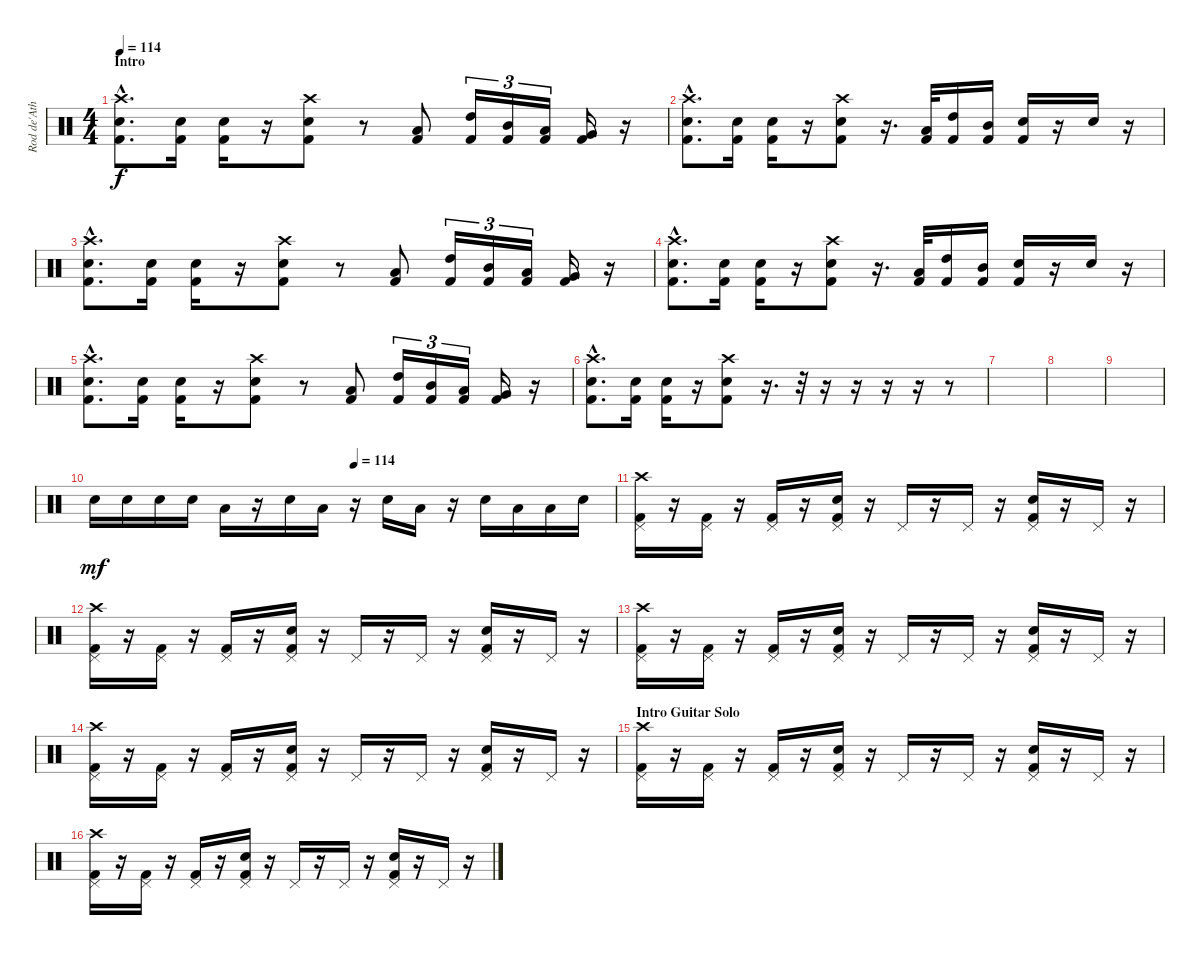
\track ("Rod de'Ath" "Rod de'Ath") {instrument percussion}
\staff {score}
\articulation defaults
\ts (4 4)
\section ("" "Intro")
\tempo 114
\tempo 118
\tempo 114
\clef neutral
\ks c
("Crash high (hit)"{hac} "Snare (hit) 2"{hac} "Kick (hit) 2"{hac}).8{d dy f} ("Snare (hit) 2" "Kick (hit) 2").16 ("Snare (hit) 2" "Kick (hit) 2").16 r.16 ("Crash high (hit)" "Snare (hit) 2" "Kick (hit) 2").8 r.8 ("Low Tom (hit)" "Kick (hit) 2").8 ("High Tom (hit)" "Kick (hit) 2").16{tu (3 2)} ("Mid Tom (hit)" "Kick (hit) 2").16{tu (3 2)} ("Low Tom (hit)" "Kick (hit) 2").16{tu (3 2)} ("Very Low Tom (hit)" "Kick (hit) 2").16 r.16 |
("Crash high (hit)"{hac} "Snare (hit) 2"{hac} "Kick (hit) 2"{hac}).8{d} ("Snare (hit) 2" "Kick (hit) 2").16 ("Snare (hit) 2" "Kick (hit) 2").16 r.16 ("Crash high (hit)" "Snare (hit) 2" "Kick (hit) 2").8 r.16{d} ("Low Tom (hit)" "Kick (hit) 2").32 ("High Tom (hit)" "Kick (hit) 2").16 ("Mid Tom (hit)" "Kick (hit) 2").16 ("Electric Snare (hit)" "Kick (hit) 2").16 r.16 "Electric Snare (hit)".16 r.16 |
("Crash high (hit)"{hac} "Snare (hit) 2"{hac} "Kick (hit) 2"{hac}).8{d} ("Snare (hit) 2" "Kick (hit) 2").16 ("Snare (hit) 2" "Kick (hit) 2").16 r.16 ("Crash high (hit)" "Snare (hit) 2" "Kick (hit) 2").8 r.8 ("Low Tom (hit)" "Kick (hit) 2").8 ("High Tom (hit)" "Kick (hit) 2").16{tu (3 2)} ("Mid Tom (hit)" "Kick (hit) 2").16{tu (3 2)} ("Low Tom (hit)" "Kick (hit) 2").16{tu (3 2)} ("Very Low Tom (hit)" "Kick (hit) 2").16 r.16 |
("Crash high (hit)"{hac} "Snare (hit) 2"{hac} "Kick (hit) 2"{hac}).8{d} ("Snare (hit) 2" "Kick (hit) 2").16 ("Snare (hit) 2" "Kick (hit) 2").16 r.16 ("Crash high (hit)" "Snare (hit) 2" "Kick (hit) 2").8 r.16{d} ("Low Tom (hit)" "Kick (hit) 2").32 ("High Tom (hit)" "Kick (hit) 2").16 ("Mid Tom (hit)" "Kick (hit) 2").16 ("Electric Snare (hit)" "Kick (hit) 2").16 r.16 "Electric Snare (hit)".16 r.16 |
("Crash high (hit)"{hac} "Snare (hit) 2"{hac} "Kick (hit) 2"{hac}).8{d} ("Snare (hit) 2" "Kick (hit) 2").16 ("Snare (hit) 2" "Kick (hit) 2").16 r.16 ("Crash high (hit)" "Snare (hit) 2" "Kick (hit) 2").8 r.8 ("Low Tom (hit)" "Kick (hit) 2").8 ("High Tom (hit)" "Kick (hit) 2").16{tu (3 2)} ("Mid Tom (hit)" "Kick (hit) 2").16{tu (3 2)} ("Low Tom (hit)" "Kick (hit) 2").16{tu (3 2)} ("Very Low Tom (hit)" "Kick (hit) 2").16 r.16 |
("Crash high (hit)"{hac} "Snare (hit) 2"{hac} "Kick (hit) 2"{hac}).8{d} ("Snare (hit) 2" "Kick (hit) 2").16 ("Snare (hit) 2" "Kick (hit) 2").16 r.16 ("Crash high (hit)" "Snare (hit) 2" "Kick (hit) 2").8 r.16{d} r.32 r.16 r.16 r.16 r.16 r.8 |
|
|
|
\tempo (114 0.5)
"Electric Snare (hit)".16{dy mf} "Electric Snare (hit)".16 "Electric Snare (hit)".16 "Electric Snare (hit)".16 "Low Tom (hit)".16 r.16 "Electric Snare (hit)".16 "Low Tom (hit)".16 r.16 "Electric Snare (hit)".16 "Low Tom (hit)".16 r.16 "Electric Snare (hit)".16 "Low Tom (hit)".16 "Low Tom (hit)".16 "Electric Snare (hit)".16 |
("Crash high (hit)" "Pedal Hi-Hat (hit)" "Kick (hit) 2").16 r.16 ("Pedal Hi-Hat (hit)" "Kick (hit) 2").16 r.16 ("Pedal Hi-Hat (hit)" "Kick (hit) 2").16 r.16 ("Snare (hit) 2" "Pedal Hi-Hat (hit)" "Kick (hit) 2").16 r.16 "Pedal Hi-Hat (hit)".16 r.16 "Pedal Hi-Hat (hit)".16 r.16 ("Snare (hit) 2" "Pedal Hi-Hat (hit)" "Kick (hit) 2").16 r.16 "Pedal Hi-Hat (hit)".16 r.16 |
("Crash high (hit)" "Pedal Hi-Hat (hit)" "Kick (hit) 2").16 r.16 ("Pedal Hi-Hat (hit)" "Kick (hit) 2").16 r.16 ("Pedal Hi-Hat (hit)" "Kick (hit) 2").16 r.16 ("Snare (hit) 2" "Pedal Hi-Hat (hit)" "Kick (hit) 2").16 r.16 "Pedal Hi-Hat (hit)".16 r.16 "Pedal Hi-Hat (hit)".16 r.16 ("Snare (hit) 2" "Pedal Hi-Hat (hit)" "Kick (hit) 2").16 r.16 "Pedal Hi-Hat (hit)".16 r.16 |
("Crash high (hit)" "Pedal Hi-Hat (hit)" "Kick (hit) 2").16 r.16 ("Pedal Hi-Hat (hit)" "Kick (hit) 2").16 r.16 ("Pedal Hi-Hat (hit)" "Kick (hit) 2").16 r.16 ("Snare (hit) 2" "Pedal Hi-Hat (hit)" "Kick (hit) 2").16 r.16 "Pedal Hi-Hat (hit)".16 r.16 "Pedal Hi-Hat (hit)".16 r.16 ("Snare (hit) 2" "Pedal Hi-Hat (hit)" "Kick (hit) 2").16 r.16 "Pedal Hi-Hat (hit)".16 r.16 |
("Crash high (hit)" "Pedal Hi-Hat (hit)" "Kick (hit) 2").16 r.16 ("Pedal Hi-Hat (hit)" "Kick (hit) 2").16 r.16 ("Pedal Hi-Hat (hit)" "Kick (hit) 2").16 r.16 ("Snare (hit) 2" "Pedal Hi-Hat (hit)" "Kick (hit) 2").16 r.16 "Pedal Hi-Hat (hit)".16 r.16 "Pedal Hi-Hat (hit)".16 r.16 ("Snare (hit) 2" "Pedal Hi-Hat (hit)" "Kick (hit) 2").16 r.16 "Pedal Hi-Hat (hit)".16 r.16 |
\section ("" "Intro Guitar Solo")
("Crash high (hit)" "Pedal Hi-Hat (hit)" "Kick (hit) 2").16 r.16 ("Pedal Hi-Hat (hit)" "Kick (hit) 2").16 r.16 ("Pedal Hi-Hat (hit)" "Kick (hit) 2").16 r.16 ("Snare (hit) 2" "Pedal Hi-Hat (hit)" "Kick (hit) 2").16 r.16 "Pedal Hi-Hat (hit)".16 r.16 "Pedal Hi-Hat (hit)".16 r.16 ("Snare (hit) 2" "Pedal Hi-Hat (hit)" "Kick (hit) 2").16 r.16 "Pedal Hi-Hat (hit)".16 r.16 |
("Crash high (hit)" "Pedal Hi-Hat (hit)" "Kick (hit) 2").16 r.16 ("Pedal Hi-Hat (hit)" "Kick (hit) 2").16 r.16 ("Pedal Hi-Hat (hit)" "Kick (hit) 2").16 r.16 ("Snare (hit) 2" "Pedal Hi-Hat (hit)" "Kick (hit) 2").16 r.16 "Pedal Hi-Hat (hit)".16 r.16 "Pedal Hi-Hat (hit)".16 r.16 ("Snare (hit) 2" "Pedal Hi-Hat (hit)" "Kick (hit) 2").16 r.16 "Pedal Hi-Hat (hit)".16 r.16
